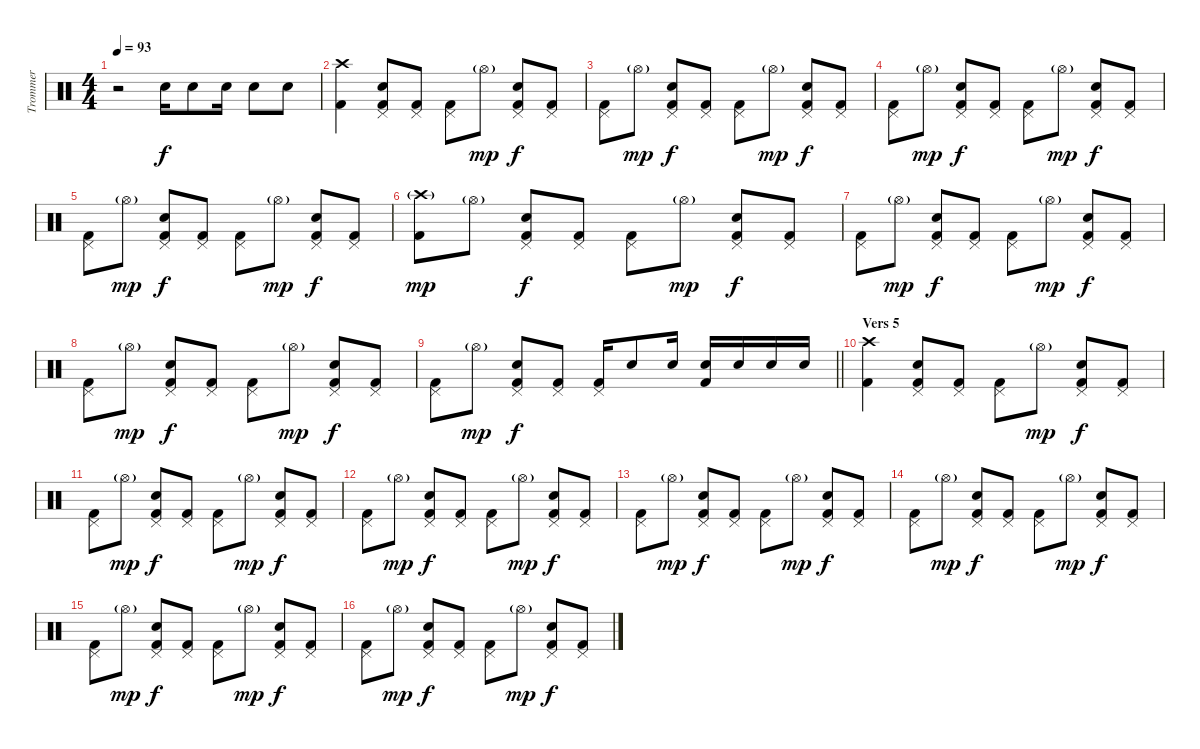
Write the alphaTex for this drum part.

\track ("Trommer" "Trommer") {instrument percussion}
\staff {score}
\articulation defaults
\ts (4 4)
\tempo 93
\clef neutral
\ks c
r.2{dy mp} "Electric Snare (hit)".16{dy f} "Electric Snare (hit)".8 "Electric Snare (hit)".16 "Electric Snare (hit)".8 "Electric Snare (hit)".8 |
("Crash high (hit)" "Kick (hit) 2").4 ("Pedal Hi-Hat (hit)" "Electric Snare (hit)" "Kick (hit) 2").8 ("Pedal Hi-Hat (hit)" "Kick (hit) 2").8 ("Pedal Hi-Hat (hit)" "Kick (hit) 2").8 "Hi-Hat (open)"{g}.8{dy mp} ("Pedal Hi-Hat (hit)" "Electric Snare (hit)" "Kick (hit) 2").8{dy f} ("Pedal Hi-Hat (hit)" "Kick (hit) 2").8 |
("Pedal Hi-Hat (hit)" "Kick (hit) 2").8 "Hi-Hat (open)"{g}.8{dy mp} ("Pedal Hi-Hat (hit)" "Electric Snare (hit)" "Kick (hit) 2").8{dy f} ("Pedal Hi-Hat (hit)" "Kick (hit) 2").8 ("Pedal Hi-Hat (hit)" "Kick (hit) 2").8 "Hi-Hat (open)"{g}.8{dy mp} ("Pedal Hi-Hat (hit)" "Electric Snare (hit)" "Kick (hit) 2").8{dy f} ("Pedal Hi-Hat (hit)" "Kick (hit) 2").8 |
("Pedal Hi-Hat (hit)" "Kick (hit) 2").8 "Hi-Hat (open)"{g}.8{dy mp} ("Pedal Hi-Hat (hit)" "Electric Snare (hit)" "Kick (hit) 2").8{dy f} ("Pedal Hi-Hat (hit)" "Kick (hit) 2").8 ("Pedal Hi-Hat (hit)" "Kick (hit) 2").8 "Hi-Hat (open)"{g}.8{dy mp} ("Pedal Hi-Hat (hit)" "Electric Snare (hit)" "Kick (hit) 2").8{dy f} ("Pedal Hi-Hat (hit)" "Kick (hit) 2").8 |
("Pedal Hi-Hat (hit)" "Kick (hit) 2").8 "Hi-Hat (open)"{g}.8{dy mp} ("Pedal Hi-Hat (hit)" "Electric Snare (hit)" "Kick (hit) 2").8{dy f} ("Pedal Hi-Hat (hit)" "Kick (hit) 2").8 ("Pedal Hi-Hat (hit)" "Kick (hit) 2").8 "Hi-Hat (open)"{g}.8{dy mp} ("Pedal Hi-Hat (hit)" "Electric Snare (hit)" "Kick (hit) 2").8{dy f} ("Pedal Hi-Hat (hit)" "Kick (hit) 2").8 |
("Crash high (hit)"{g} "Kick (hit) 2").8{dy mp} "Hi-Hat (open)"{g}.8 ("Pedal Hi-Hat (hit)" "Electric Snare (hit)" "Kick (hit) 2").8{dy f} ("Pedal Hi-Hat (hit)" "Kick (hit) 2").8 ("Pedal Hi-Hat (hit)" "Kick (hit) 2").8 "Hi-Hat (open)"{g}.8{dy mp} ("Pedal Hi-Hat (hit)" "Electric Snare (hit)" "Kick (hit) 2").8{dy f} ("Pedal Hi-Hat (hit)" "Kick (hit) 2").8 |
("Pedal Hi-Hat (hit)" "Kick (hit) 2").8 "Hi-Hat (open)"{g}.8{dy mp} ("Pedal Hi-Hat (hit)" "Electric Snare (hit)" "Kick (hit) 2").8{dy f} ("Pedal Hi-Hat (hit)" "Kick (hit) 2").8 ("Pedal Hi-Hat (hit)" "Kick (hit) 2").8 "Hi-Hat (open)"{g}.8{dy mp} ("Pedal Hi-Hat (hit)" "Electric Snare (hit)" "Kick (hit) 2").8{dy f} ("Pedal Hi-Hat (hit)" "Kick (hit) 2").8 |
("Pedal Hi-Hat (hit)" "Kick (hit) 2").8 "Hi-Hat (open)"{g}.8{dy mp} ("Pedal Hi-Hat (hit)" "Electric Snare (hit)" "Kick (hit) 2").8{dy f} ("Pedal Hi-Hat (hit)" "Kick (hit) 2").8 ("Pedal Hi-Hat (hit)" "Kick (hit) 2").8 "Hi-Hat (open)"{g}.8{dy mp} ("Pedal Hi-Hat (hit)" "Electric Snare (hit)" "Kick (hit) 2").8{dy f} ("Pedal Hi-Hat (hit)" "Kick (hit) 2").8 |
\barLineRight lightlight
("Pedal Hi-Hat (hit)" "Kick (hit) 2").8 "Hi-Hat (open)"{g}.8{dy mp} ("Pedal Hi-Hat (hit)" "Electric Snare (hit)" "Kick (hit) 2").8{dy f} ("Pedal Hi-Hat (hit)" "Kick (hit) 2").8 ("Pedal Hi-Hat (hit)" "Kick (hit) 2").16 "Electric Snare (hit)".8 "Electric Snare (hit)".16 ("Electric Snare (hit)" "Kick (hit) 2").16 "Electric Snare (hit)".16 "Electric Snare (hit)".16 "Electric Snare (hit)".16 |
\section ("" "Vers 5")
("Crash high (hit)" "Kick (hit) 2").4 ("Pedal Hi-Hat (hit)" "Electric Snare (hit)" "Kick (hit) 2").8 ("Pedal Hi-Hat (hit)" "Kick (hit) 2").8 ("Pedal Hi-Hat (hit)" "Kick (hit) 2").8 "Hi-Hat (open)"{g}.8{dy mp} ("Pedal Hi-Hat (hit)" "Electric Snare (hit)" "Kick (hit) 2").8{dy f} ("Pedal Hi-Hat (hit)" "Kick (hit) 2").8 |
("Pedal Hi-Hat (hit)" "Kick (hit) 2").8 "Hi-Hat (open)"{g}.8{dy mp} ("Pedal Hi-Hat (hit)" "Electric Snare (hit)" "Kick (hit) 2").8{dy f} ("Pedal Hi-Hat (hit)" "Kick (hit) 2").8 ("Pedal Hi-Hat (hit)" "Kick (hit) 2").8 "Hi-Hat (open)"{g}.8{dy mp} ("Pedal Hi-Hat (hit)" "Electric Snare (hit)" "Kick (hit) 2").8{dy f} ("Pedal Hi-Hat (hit)" "Kick (hit) 2").8 |
("Pedal Hi-Hat (hit)" "Kick (hit) 2").8 "Hi-Hat (open)"{g}.8{dy mp} ("Pedal Hi-Hat (hit)" "Electric Snare (hit)" "Kick (hit) 2").8{dy f} ("Pedal Hi-Hat (hit)" "Kick (hit) 2").8 ("Pedal Hi-Hat (hit)" "Kick (hit) 2").8 "Hi-Hat (open)"{g}.8{dy mp} ("Pedal Hi-Hat (hit)" "Electric Snare (hit)" "Kick (hit) 2").8{dy f} ("Pedal Hi-Hat (hit)" "Kick (hit) 2").8 |
("Pedal Hi-Hat (hit)" "Kick (hit) 2").8 "Hi-Hat (open)"{g}.8{dy mp} ("Pedal Hi-Hat (hit)" "Electric Snare (hit)" "Kick (hit) 2").8{dy f} ("Pedal Hi-Hat (hit)" "Kick (hit) 2").8 ("Pedal Hi-Hat (hit)" "Kick (hit) 2").8 "Hi-Hat (open)"{g}.8{dy mp} ("Pedal Hi-Hat (hit)" "Electric Snare (hit)" "Kick (hit) 2").8{dy f} ("Pedal Hi-Hat (hit)" "Kick (hit) 2").8 |
("Pedal Hi-Hat (hit)" "Kick (hit) 2").8 "Hi-Hat (open)"{g}.8{dy mp} ("Pedal Hi-Hat (hit)" "Electric Snare (hit)" "Kick (hit) 2").8{dy f} ("Pedal Hi-Hat (hit)" "Kick (hit) 2").8 ("Pedal Hi-Hat (hit)" "Kick (hit) 2").8 "Hi-Hat (open)"{g}.8{dy mp} ("Pedal Hi-Hat (hit)" "Electric Snare (hit)" "Kick (hit) 2").8{dy f} ("Pedal Hi-Hat (hit)" "Kick (hit) 2").8 |
("Pedal Hi-Hat (hit)" "Kick (hit) 2").8 "Hi-Hat (open)"{g}.8{dy mp} ("Pedal Hi-Hat (hit)" "Electric Snare (hit)" "Kick (hit) 2").8{dy f} ("Pedal Hi-Hat (hit)" "Kick (hit) 2").8 ("Pedal Hi-Hat (hit)" "Kick (hit) 2").8 "Hi-Hat (open)"{g}.8{dy mp} ("Pedal Hi-Hat (hit)" "Electric Snare (hit)" "Kick (hit) 2").8{dy f} ("Pedal Hi-Hat (hit)" "Kick (hit) 2").8 |
("Pedal Hi-Hat (hit)" "Kick (hit) 2").8 "Hi-Hat (open)"{g}.8{dy mp} ("Pedal Hi-Hat (hit)" "Electric Snare (hit)" "Kick (hit) 2").8{dy f} ("Pedal Hi-Hat (hit)" "Kick (hit) 2").8 ("Pedal Hi-Hat (hit)" "Kick (hit) 2").8 "Hi-Hat (open)"{g}.8{dy mp} ("Pedal Hi-Hat (hit)" "Electric Snare (hit)" "Kick (hit) 2").8{dy f} ("Pedal Hi-Hat (hit)" "Kick (hit) 2").8
